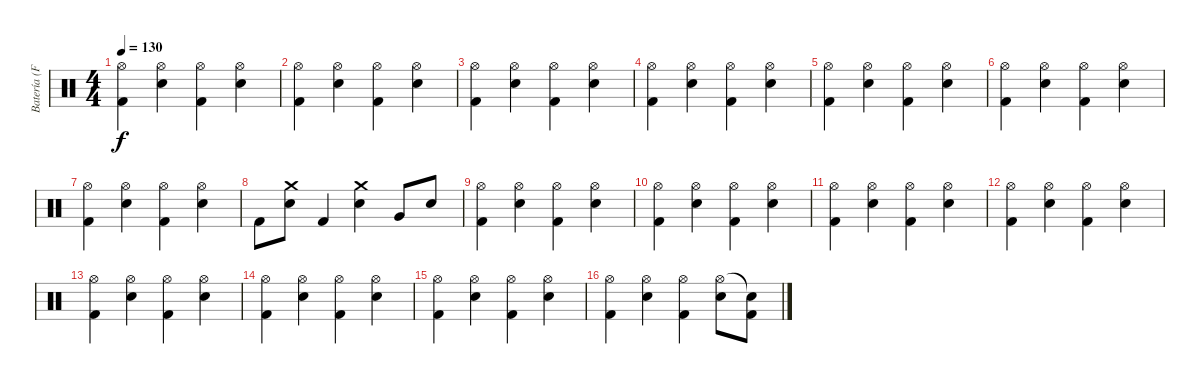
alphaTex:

\track ("Batería (F. Scarcella)" "Batería (F") {instrument percussion}
\staff {score}
\articulation defaults
\ts (4 4)
\tempo 130
\clef neutral
\ks c
("Kick (hit) 2" "Hi-Hat (open)").4{dy f} ("Snare (hit) 2" "Hi-Hat (open)").4 ("Kick (hit) 2" "Hi-Hat (open)").4 ("Snare (hit) 2" "Hi-Hat (open)").4 |
("Kick (hit) 2" "Hi-Hat (open)").4 ("Snare (hit) 2" "Hi-Hat (open)").4 ("Kick (hit) 2" "Hi-Hat (open)").4 ("Snare (hit) 2" "Hi-Hat (open)").4 |
("Kick (hit) 2" "Hi-Hat (open)").4 ("Snare (hit) 2" "Hi-Hat (open)").4 ("Kick (hit) 2" "Hi-Hat (open)").4 ("Snare (hit) 2" "Hi-Hat (open)").4 |
("Kick (hit) 2" "Hi-Hat (open)").4 ("Snare (hit) 2" "Hi-Hat (open)").4 ("Kick (hit) 2" "Hi-Hat (open)").4 ("Snare (hit) 2" "Hi-Hat (open)").4 |
("Kick (hit) 2" "Hi-Hat (open)").4 ("Snare (hit) 2" "Hi-Hat (open)").4 ("Kick (hit) 2" "Hi-Hat (open)").4 ("Snare (hit) 2" "Hi-Hat (open)").4 |
("Kick (hit) 2" "Hi-Hat (open)").4 ("Snare (hit) 2" "Hi-Hat (open)").4 ("Kick (hit) 2" "Hi-Hat (open)").4 ("Snare (hit) 2" "Hi-Hat (open)").4 |
("Kick (hit) 2" "Hi-Hat (open)").4 ("Snare (hit) 2" "Hi-Hat (open)").4 ("Kick (hit) 2" "Hi-Hat (open)").4 ("Snare (hit) 2" "Hi-Hat (open)").4 |
"Kick (hit) 2".8 ("Snare (hit) 2" "Crash medium (hit)").8 "Kick (hit) 2".4 ("Snare (hit) 2" "Crash medium (hit)").4 "Very Low Tom (hit)".8 "Snare (hit) 2".8 |
("Kick (hit) 2" "Hi-Hat (open)").4 ("Snare (hit) 2" "Hi-Hat (open)").4 ("Kick (hit) 2" "Hi-Hat (open)").4 ("Snare (hit) 2" "Hi-Hat (open)").4 |
("Kick (hit) 2" "Hi-Hat (open)").4 ("Snare (hit) 2" "Hi-Hat (open)").4 ("Kick (hit) 2" "Hi-Hat (open)").4 ("Snare (hit) 2" "Hi-Hat (open)").4 |
("Kick (hit) 2" "Hi-Hat (open)").4 ("Snare (hit) 2" "Hi-Hat (open)").4 ("Kick (hit) 2" "Hi-Hat (open)").4 ("Snare (hit) 2" "Hi-Hat (open)").4 |
("Kick (hit) 2" "Hi-Hat (open)").4 ("Snare (hit) 2" "Hi-Hat (open)").4 ("Kick (hit) 2" "Hi-Hat (open)").4 ("Snare (hit) 2" "Hi-Hat (open)").4 |
("Kick (hit) 2" "Hi-Hat (open)").4 ("Snare (hit) 2" "Hi-Hat (open)").4 ("Kick (hit) 2" "Hi-Hat (open)").4 ("Snare (hit) 2" "Hi-Hat (open)").4 |
("Kick (hit) 2" "Hi-Hat (open)").4 ("Snare (hit) 2" "Hi-Hat (open)").4 ("Kick (hit) 2" "Hi-Hat (open)").4 ("Snare (hit) 2" "Hi-Hat (open)").4 |
("Kick (hit) 2" "Hi-Hat (open)").4 ("Snare (hit) 2" "Hi-Hat (open)").4 ("Kick (hit) 2" "Hi-Hat (open)").4 ("Snare (hit) 2" "Hi-Hat (open)").4 |
("Kick (hit) 2" "Hi-Hat (open)").4 ("Snare (hit) 2" "Hi-Hat (open)").4 ("Kick (hit) 2" "Hi-Hat (open)").4 ("Snare (hit) 2" "Hi-Hat (open)").8 ("Kick (hit) 2" "Snare (hit)"{t}).8
